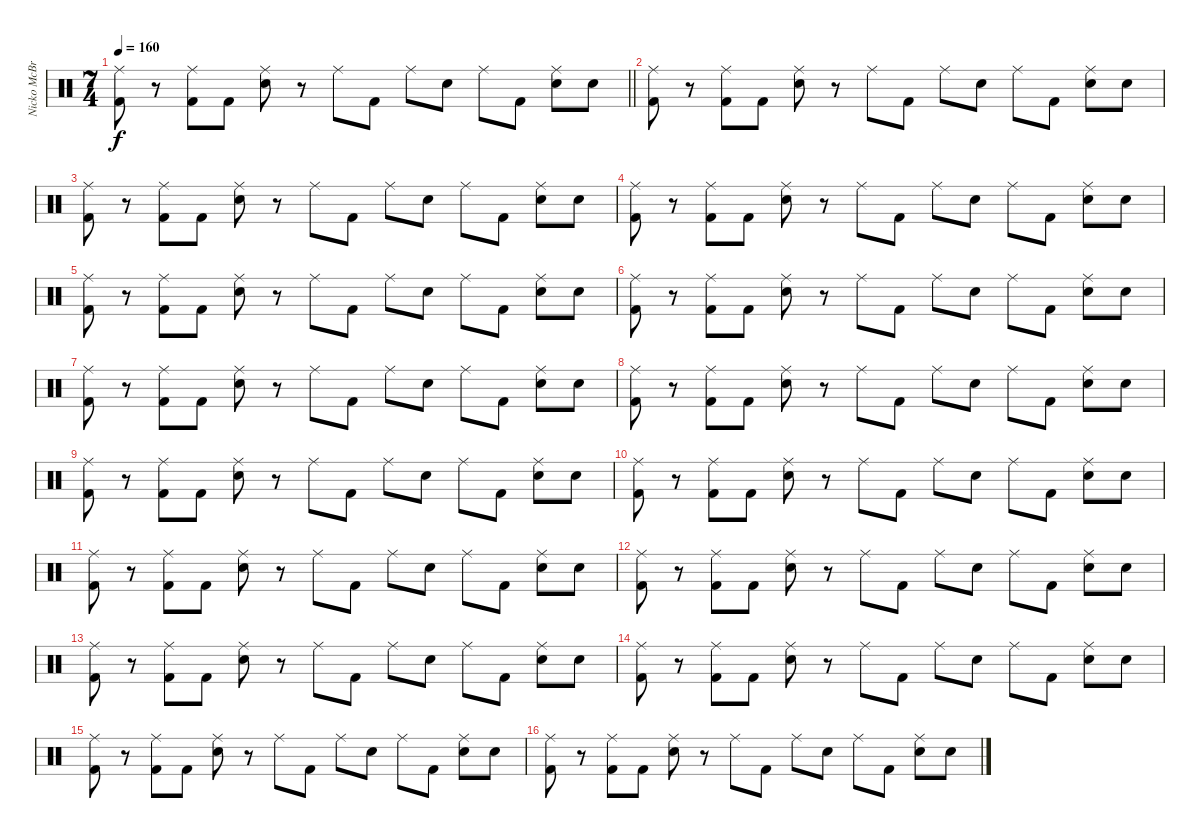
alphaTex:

\track ("Nicko McBrain" "Nicko McBr") {instrument percussion}
\staff {score}
\articulation defaults
\ts (7 4)
\tempo 160
\clef neutral
\barLineRight lightlight
\ks c
("Ride (middle)" "Kick (hit) 2").8{dy f} r.8 ("Ride (middle)" "Kick (hit) 2").8 "Kick (hit) 2".8 ("Ride (middle)" "Snare (hit) 2").8 r.8 "Ride (middle)".8 "Kick (hit) 2".8 "Ride (middle)".8 "Snare (hit) 2".8 "Ride (middle)".8 "Kick (hit) 2".8 ("Ride (middle)" "Snare (hit) 2").8 "Snare (hit) 2".8 |
("Ride (middle)" "Kick (hit) 2").8 r.8 ("Ride (middle)" "Kick (hit) 2").8 "Kick (hit) 2".8 ("Ride (middle)" "Snare (hit) 2").8 r.8 "Ride (middle)".8 "Kick (hit) 2".8 "Ride (middle)".8 "Snare (hit) 2".8 "Ride (middle)".8 "Kick (hit) 2".8 ("Ride (middle)" "Snare (hit) 2").8 "Snare (hit) 2".8 |
("Ride (middle)" "Kick (hit) 2").8 r.8 ("Ride (middle)" "Kick (hit) 2").8 "Kick (hit) 2".8 ("Ride (middle)" "Snare (hit) 2").8 r.8 "Ride (middle)".8 "Kick (hit) 2".8 "Ride (middle)".8 "Snare (hit) 2".8 "Ride (middle)".8 "Kick (hit) 2".8 ("Ride (middle)" "Snare (hit) 2").8 "Snare (hit) 2".8 |
("Ride (middle)" "Kick (hit) 2").8 r.8 ("Ride (middle)" "Kick (hit) 2").8 "Kick (hit) 2".8 ("Ride (middle)" "Snare (hit) 2").8 r.8 "Ride (middle)".8 "Kick (hit) 2".8 "Ride (middle)".8 "Snare (hit) 2".8 "Ride (middle)".8 "Kick (hit) 2".8 ("Ride (middle)" "Snare (hit) 2").8 "Snare (hit) 2".8 |
("Ride (middle)" "Kick (hit) 2").8 r.8 ("Ride (middle)" "Kick (hit) 2").8 "Kick (hit) 2".8 ("Ride (middle)" "Snare (hit) 2").8 r.8 "Ride (middle)".8 "Kick (hit) 2".8 "Ride (middle)".8 "Snare (hit) 2".8 "Ride (middle)".8 "Kick (hit) 2".8 ("Ride (middle)" "Snare (hit) 2").8 "Snare (hit) 2".8 |
("Ride (middle)" "Kick (hit) 2").8 r.8 ("Ride (middle)" "Kick (hit) 2").8 "Kick (hit) 2".8 ("Ride (middle)" "Snare (hit) 2").8 r.8 "Ride (middle)".8 "Kick (hit) 2".8 "Ride (middle)".8 "Snare (hit) 2".8 "Ride (middle)".8 "Kick (hit) 2".8 ("Ride (middle)" "Snare (hit) 2").8 "Snare (hit) 2".8 |
("Ride (middle)" "Kick (hit) 2").8 r.8 ("Ride (middle)" "Kick (hit) 2").8 "Kick (hit) 2".8 ("Ride (middle)" "Snare (hit) 2").8 r.8 "Ride (middle)".8 "Kick (hit) 2".8 "Ride (middle)".8 "Snare (hit) 2".8 "Ride (middle)".8 "Kick (hit) 2".8 ("Ride (middle)" "Snare (hit) 2").8 "Snare (hit) 2".8 |
("Ride (middle)" "Kick (hit) 2").8 r.8 ("Ride (middle)" "Kick (hit) 2").8 "Kick (hit) 2".8 ("Ride (middle)" "Snare (hit) 2").8 r.8 "Ride (middle)".8 "Kick (hit) 2".8 "Ride (middle)".8 "Snare (hit) 2".8 "Ride (middle)".8 "Kick (hit) 2".8 ("Ride (middle)" "Snare (hit) 2").8 "Snare (hit) 2".8 |
("Ride (middle)" "Kick (hit) 2").8 r.8 ("Ride (middle)" "Kick (hit) 2").8 "Kick (hit) 2".8 ("Ride (middle)" "Snare (hit) 2").8 r.8 "Ride (middle)".8 "Kick (hit) 2".8 "Ride (middle)".8 "Snare (hit) 2".8 "Ride (middle)".8 "Kick (hit) 2".8 ("Ride (middle)" "Snare (hit) 2").8 "Snare (hit) 2".8 |
("Ride (middle)" "Kick (hit) 2").8 r.8 ("Ride (middle)" "Kick (hit) 2").8 "Kick (hit) 2".8 ("Ride (middle)" "Snare (hit) 2").8 r.8 "Ride (middle)".8 "Kick (hit) 2".8 "Ride (middle)".8 "Snare (hit) 2".8 "Ride (middle)".8 "Kick (hit) 2".8 ("Ride (middle)" "Snare (hit) 2").8 "Snare (hit) 2".8 |
("Ride (middle)" "Kick (hit) 2").8 r.8 ("Ride (middle)" "Kick (hit) 2").8 "Kick (hit) 2".8 ("Ride (middle)" "Snare (hit) 2").8 r.8 "Ride (middle)".8 "Kick (hit) 2".8 "Ride (middle)".8 "Snare (hit) 2".8 "Ride (middle)".8 "Kick (hit) 2".8 ("Ride (middle)" "Snare (hit) 2").8 "Snare (hit) 2".8 |
("Ride (middle)" "Kick (hit) 2").8 r.8 ("Ride (middle)" "Kick (hit) 2").8 "Kick (hit) 2".8 ("Ride (middle)" "Snare (hit) 2").8 r.8 "Ride (middle)".8 "Kick (hit) 2".8 "Ride (middle)".8 "Snare (hit) 2".8 "Ride (middle)".8 "Kick (hit) 2".8 ("Ride (middle)" "Snare (hit) 2").8 "Snare (hit) 2".8 |
("Ride (middle)" "Kick (hit) 2").8 r.8 ("Ride (middle)" "Kick (hit) 2").8 "Kick (hit) 2".8 ("Ride (middle)" "Snare (hit) 2").8 r.8 "Ride (middle)".8 "Kick (hit) 2".8 "Ride (middle)".8 "Snare (hit) 2".8 "Ride (middle)".8 "Kick (hit) 2".8 ("Ride (middle)" "Snare (hit) 2").8 "Snare (hit) 2".8 |
("Ride (middle)" "Kick (hit) 2").8 r.8 ("Ride (middle)" "Kick (hit) 2").8 "Kick (hit) 2".8 ("Ride (middle)" "Snare (hit) 2").8 r.8 "Ride (middle)".8 "Kick (hit) 2".8 "Ride (middle)".8 "Snare (hit) 2".8 "Ride (middle)".8 "Kick (hit) 2".8 ("Ride (middle)" "Snare (hit) 2").8 "Snare (hit) 2".8 |
("Ride (middle)" "Kick (hit) 2").8 r.8 ("Ride (middle)" "Kick (hit) 2").8 "Kick (hit) 2".8 ("Ride (middle)" "Snare (hit) 2").8 r.8 "Ride (middle)".8 "Kick (hit) 2".8 "Ride (middle)".8 "Snare (hit) 2".8 "Ride (middle)".8 "Kick (hit) 2".8 ("Ride (middle)" "Snare (hit) 2").8 "Snare (hit) 2".8 |
("Ride (middle)" "Kick (hit) 2").8 r.8 ("Ride (middle)" "Kick (hit) 2").8 "Kick (hit) 2".8 ("Ride (middle)" "Snare (hit) 2").8 r.8 "Ride (middle)".8 "Kick (hit) 2".8 "Ride (middle)".8 "Snare (hit) 2".8 "Ride (middle)".8 "Kick (hit) 2".8 ("Ride (middle)" "Snare (hit) 2").8 "Snare (hit) 2".8
